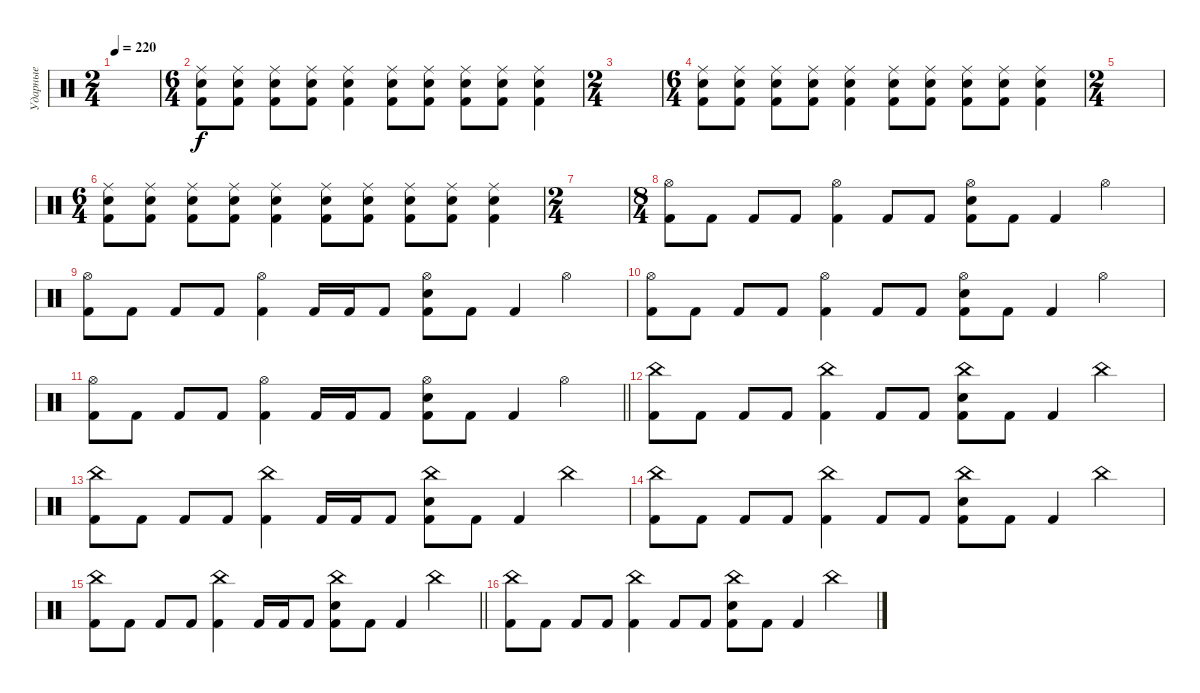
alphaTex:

\track ("Ударные" "Ударные") {instrument percussion}
\staff {score}
\articulation defaults
\ts (2 4)
\tempo 220
\clef neutral
\ks c
|
\ts (6 4)
("Ride (middle)" "Electric Snare (hit)" "Kick (hit) 2").8 ("Ride (middle)" "Electric Snare (hit)" "Kick (hit) 2").8 ("Ride (middle)" "Electric Snare (hit)" "Kick (hit) 2").8 ("Ride (middle)" "Electric Snare (hit)" "Kick (hit) 2").8 ("Ride (middle)" "Electric Snare (hit)" "Kick (hit) 2").4 ("Ride (middle)" "Electric Snare (hit)" "Kick (hit) 2").8 ("Ride (middle)" "Electric Snare (hit)" "Kick (hit) 2").8 ("Ride (middle)" "Electric Snare (hit)" "Kick (hit) 2").8 ("Ride (middle)" "Electric Snare (hit)" "Kick (hit) 2").8 ("Ride (middle)" "Electric Snare (hit)" "Kick (hit) 2").4 |
\ts (2 4)
|
\ts (6 4)
("Ride (middle)" "Electric Snare (hit)" "Kick (hit) 2").8 ("Ride (middle)" "Electric Snare (hit)" "Kick (hit) 2").8 ("Ride (middle)" "Electric Snare (hit)" "Kick (hit) 2").8 ("Ride (middle)" "Electric Snare (hit)" "Kick (hit) 2").8 ("Ride (middle)" "Electric Snare (hit)" "Kick (hit) 2").4 ("Ride (middle)" "Electric Snare (hit)" "Kick (hit) 2").8 ("Ride (middle)" "Electric Snare (hit)" "Kick (hit) 2").8 ("Ride (middle)" "Electric Snare (hit)" "Kick (hit) 2").8 ("Ride (middle)" "Electric Snare (hit)" "Kick (hit) 2").8 ("Ride (middle)" "Electric Snare (hit)" "Kick (hit) 2").4 |
\ts (2 4)
|
\ts (6 4)
("Ride (middle)" "Electric Snare (hit)" "Kick (hit) 2").8 ("Ride (middle)" "Electric Snare (hit)" "Kick (hit) 2").8 ("Ride (middle)" "Electric Snare (hit)" "Kick (hit) 2").8 ("Ride (middle)" "Electric Snare (hit)" "Kick (hit) 2").8 ("Ride (middle)" "Electric Snare (hit)" "Kick (hit) 2").4 ("Ride (middle)" "Electric Snare (hit)" "Kick (hit) 2").8 ("Ride (middle)" "Electric Snare (hit)" "Kick (hit) 2").8 ("Ride (middle)" "Electric Snare (hit)" "Kick (hit) 2").8 ("Ride (middle)" "Electric Snare (hit)" "Kick (hit) 2").8 ("Ride (middle)" "Electric Snare (hit)" "Kick (hit) 2").4 |
\ts (2 4)
|
\ts (8 4)
("Hi-Hat (open)" "Kick (hit) 2").8 "Kick (hit) 2".8 "Kick (hit) 2".8 "Kick (hit) 2".8 ("Hi-Hat (open)" "Kick (hit) 2").4 "Kick (hit) 2".8 "Kick (hit) 2".8 ("Hi-Hat (open)" "Electric Snare (hit)" "Kick (hit) 2").8 "Kick (hit) 2".8 "Kick (hit) 2".4 "Hi-Hat (open)".2 |
("Hi-Hat (open)" "Kick (hit) 2").8 "Kick (hit) 2".8 "Kick (hit) 2".8 "Kick (hit) 2".8 ("Hi-Hat (open)" "Kick (hit) 2").4 "Kick (hit) 2".16 "Kick (hit) 2".16 "Kick (hit) 2".8 ("Hi-Hat (open)" "Electric Snare (hit)" "Kick (hit) 2").8 "Kick (hit) 2".8 "Kick (hit) 2".4 "Hi-Hat (open)".2 |
("Hi-Hat (open)" "Kick (hit) 2").8 "Kick (hit) 2".8 "Kick (hit) 2".8 "Kick (hit) 2".8 ("Hi-Hat (open)" "Kick (hit) 2").4 "Kick (hit) 2".8 "Kick (hit) 2".8 ("Hi-Hat (open)" "Electric Snare (hit)" "Kick (hit) 2").8 "Kick (hit) 2".8 "Kick (hit) 2".4 "Hi-Hat (open)".2 |
\barLineRight lightlight
("Hi-Hat (open)" "Kick (hit) 2").8 "Kick (hit) 2".8 "Kick (hit) 2".8 "Kick (hit) 2".8 ("Hi-Hat (open)" "Kick (hit) 2").4 "Kick (hit) 2".16 "Kick (hit) 2".16 "Kick (hit) 2".8 ("Hi-Hat (open)" "Electric Snare (hit)" "Kick (hit) 2").8 "Kick (hit) 2".8 "Kick (hit) 2".4 "Hi-Hat (open)".2 |
("China (hit)" "Kick (hit) 2").8 "Kick (hit) 2".8 "Kick (hit) 2".8 "Kick (hit) 2".8 ("China (hit)" "Kick (hit) 2").4 "Kick (hit) 2".8 "Kick (hit) 2".8 ("China (hit)" "Electric Snare (hit)" "Kick (hit) 2").8 "Kick (hit) 2".8 "Kick (hit) 2".4 "China (hit)".2 |
("China (hit)" "Kick (hit) 2").8 "Kick (hit) 2".8 "Kick (hit) 2".8 "Kick (hit) 2".8 ("China (hit)" "Kick (hit) 2").4 "Kick (hit) 2".16 "Kick (hit) 2".16 "Kick (hit) 2".8 ("China (hit)" "Electric Snare (hit)" "Kick (hit) 2").8 "Kick (hit) 2".8 "Kick (hit) 2".4 "China (hit)".2 |
("China (hit)" "Kick (hit) 2").8 "Kick (hit) 2".8 "Kick (hit) 2".8 "Kick (hit) 2".8 ("China (hit)" "Kick (hit) 2").4 "Kick (hit) 2".8 "Kick (hit) 2".8 ("China (hit)" "Electric Snare (hit)" "Kick (hit) 2").8 "Kick (hit) 2".8 "Kick (hit) 2".4 "China (hit)".2 |
\barLineRight lightlight
("China (hit)" "Kick (hit) 2").8 "Kick (hit) 2".8 "Kick (hit) 2".8 "Kick (hit) 2".8 ("China (hit)" "Kick (hit) 2").4 "Kick (hit) 2".16 "Kick (hit) 2".16 "Kick (hit) 2".8 ("China (hit)" "Electric Snare (hit)" "Kick (hit) 2").8 "Kick (hit) 2".8 "Kick (hit) 2".4 "China (hit)".2 |
("China (hit)" "Kick (hit) 2").8 "Kick (hit) 2".8 "Kick (hit) 2".8 "Kick (hit) 2".8 ("China (hit)" "Kick (hit) 2").4 "Kick (hit) 2".8 "Kick (hit) 2".8 ("China (hit)" "Electric Snare (hit)" "Kick (hit) 2").8 "Kick (hit) 2".8 "Kick (hit) 2".4 "China (hit)".2
